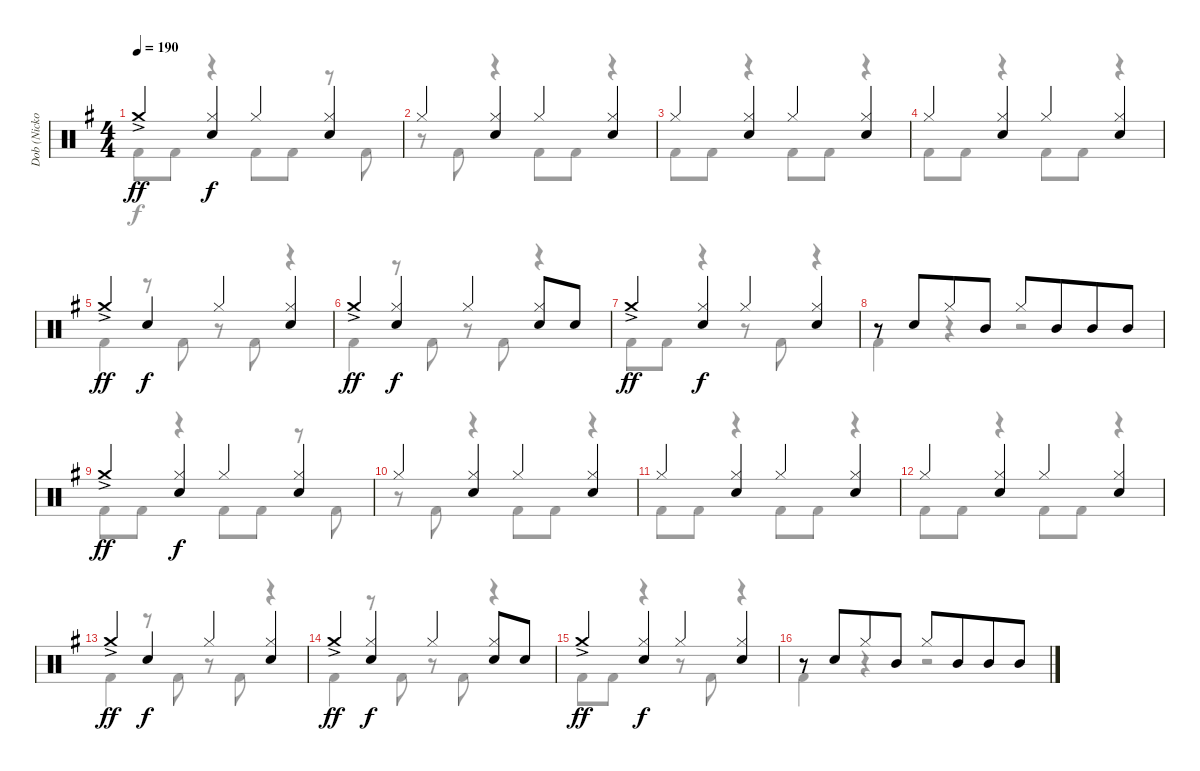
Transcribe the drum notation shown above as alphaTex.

\track ("Dob (Nicko McBrain)" "Dob (Nicko") {instrument percussion}
\staff {score}
\articulation defaults
\voice
\ts (4 4)
\tempo 190
\clef neutral
\ks g "Crash medium (hit)"{ac}.4{dy ff}
("Hi-Hat (closed)" "Electric Snare (hit)").4{dy f} "Hi-Hat (closed)".4 ("Hi-Hat (closed)" "Electric Snare (hit)").4 |
"Hi-Hat (closed)".4 ("Hi-Hat (closed)" "Electric Snare (hit)").4 "Hi-Hat (closed)".4 ("Hi-Hat (closed)" "Electric Snare (hit)").4 |
"Hi-Hat (closed)".4 ("Hi-Hat (closed)" "Electric Snare (hit)").4 "Hi-Hat (closed)".4 ("Hi-Hat (closed)" "Electric Snare (hit)").4 |
"Hi-Hat (closed)".4 ("Hi-Hat (closed)" "Electric Snare (hit)").4 "Hi-Hat (closed)".4 ("Hi-Hat (closed)" "Electric Snare (hit)").4 |
"Crash medium (hit)"{ac}.4{dy ff} "Electric Snare (hit)".4{dy f} "Hi-Hat (closed)".4 ("Hi-Hat (closed)" "Electric Snare (hit)").4 |
"Crash medium (hit)"{ac}.4{dy ff} ("Hi-Hat (closed)" "Electric Snare (hit)").4{dy f} "Hi-Hat (closed)".4 ("Hi-Hat (closed)" "Electric Snare (hit)").8 "Electric Snare (hit)".8 |
"Crash medium (hit)"{ac}.4{dy ff} ("Hi-Hat (closed)" "Electric Snare (hit)").4{dy f} "Hi-Hat (closed)".4 ("Hi-Hat (closed)" "Electric Snare (hit)").4 |
r.8 "Electric Snare (hit)".8{beam merge} "Hi-Hat (closed)".8 "Mid Tom (hit)".8 "Hi-Hat (closed)".8 "Mid Tom (hit)".8{beam merge} "Mid Tom (hit)".8 "Mid Tom (hit)".8 |
"Crash medium (hit)"{ac}.4{dy ff} ("Hi-Hat (closed)" "Electric Snare (hit)").4{dy f} "Hi-Hat (closed)".4 ("Hi-Hat (closed)" "Electric Snare (hit)").4 |
"Hi-Hat (closed)".4 ("Hi-Hat (closed)" "Electric Snare (hit)").4 "Hi-Hat (closed)".4 ("Hi-Hat (closed)" "Electric Snare (hit)").4 |
"Hi-Hat (closed)".4 ("Hi-Hat (closed)" "Electric Snare (hit)").4 "Hi-Hat (closed)".4 ("Hi-Hat (closed)" "Electric Snare (hit)").4 |
"Hi-Hat (closed)".4 ("Hi-Hat (closed)" "Electric Snare (hit)").4 "Hi-Hat (closed)".4 ("Hi-Hat (closed)" "Electric Snare (hit)").4 |
"Crash medium (hit)"{ac}.4{dy ff} "Electric Snare (hit)".4{dy f} "Hi-Hat (closed)".4 ("Hi-Hat (closed)" "Electric Snare (hit)").4 |
"Crash medium (hit)"{ac}.4{dy ff} ("Hi-Hat (closed)" "Electric Snare (hit)").4{dy f} "Hi-Hat (closed)".4 ("Hi-Hat (closed)" "Electric Snare (hit)").8 "Electric Snare (hit)".8 |
"Crash medium (hit)"{ac}.4{dy ff} ("Hi-Hat (closed)" "Electric Snare (hit)").4{dy f} "Hi-Hat (closed)".4 ("Hi-Hat (closed)" "Electric Snare (hit)").4 |
r.8 "Electric Snare (hit)".8{beam merge} "Hi-Hat (closed)".8 "Mid Tom (hit)".8 "Hi-Hat (closed)".8 "Mid Tom (hit)".8{beam merge} "Mid Tom (hit)".8 "Mid Tom (hit)".8
\voice
\clef neutral
\ottava regular
\simile none
\ks g "Kick (hit) 2".8{dy f} "Kick (hit) 2".8
r.4 "Kick (hit) 2".8 "Kick (hit) 2".8 r.8 "Kick (hit) 2".8 |
r.8 "Kick (hit) 2".8 r.4 "Kick (hit) 2".8 "Kick (hit) 2".8 r.4 |
"Kick (hit) 2".8 "Kick (hit) 2".8 r.4 "Kick (hit) 2".8 "Kick (hit) 2".8 r.4 |
"Kick (hit) 2".8 "Kick (hit) 2".8 r.4 "Kick (hit) 2".8 "Kick (hit) 2".8 r.4 |
"Kick (hit) 2".4 r.8 "Kick (hit) 2".8 r.8 "Kick (hit) 2".8 r.4 |
"Kick (hit) 2".4 r.8 "Kick (hit) 2".8 r.8 "Kick (hit) 2".8 r.4 |
"Kick (hit) 2".8 "Kick (hit) 2".8 r.4 r.8 "Kick (hit) 2".8 r.4 |
"Kick (hit) 2".4 r.4 r.2 |
"Kick (hit) 2".8 "Kick (hit) 2".8 r.4 "Kick (hit) 2".8 "Kick (hit) 2".8 r.8 "Kick (hit) 2".8 |
r.8 "Kick (hit) 2".8 r.4 "Kick (hit) 2".8 "Kick (hit) 2".8 r.4 |
"Kick (hit) 2".8 "Kick (hit) 2".8 r.4 "Kick (hit) 2".8 "Kick (hit) 2".8 r.4 |
"Kick (hit) 2".8 "Kick (hit) 2".8 r.4 "Kick (hit) 2".8 "Kick (hit) 2".8 r.4 |
"Kick (hit) 2".4 r.8 "Kick (hit) 2".8 r.8 "Kick (hit) 2".8 r.4 |
"Kick (hit) 2".4 r.8 "Kick (hit) 2".8 r.8 "Kick (hit) 2".8 r.4 |
"Kick (hit) 2".8 "Kick (hit) 2".8 r.4 r.8 "Kick (hit) 2".8 r.4 |
"Kick (hit) 2".4 r.4 r.2
